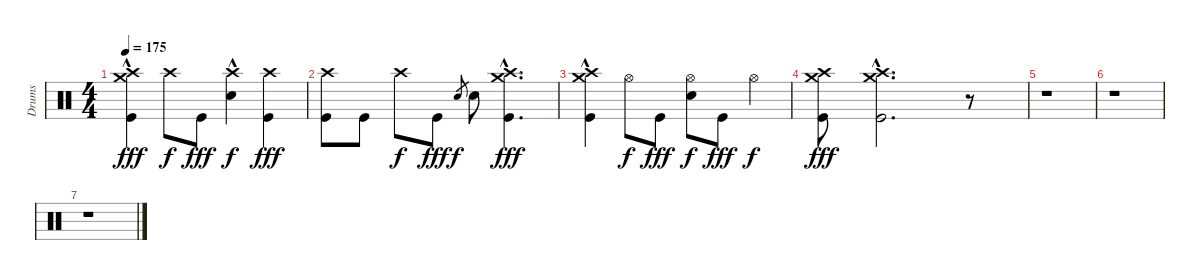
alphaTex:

\track ("Drums" "Drums") {instrument percussion}
\staff {score}
\articulation defaults
\ts (4 4)
\tempo 175
\clef neutral
\ks c
("Crash high (hit)"{hac} "Crash medium (hit)"{hac} "Kick (hit)").4{dy fff} "Crash high (hit)".8{dy f} "Kick (hit)".8{dy fff} ("Crash high (hit)"{hac} "Snare (hit) 2").4{dy f} ("Crash high (hit)" "Kick (hit)").4{dy fff} |
("Crash high (hit)" "Kick (hit)").8 "Kick (hit)".8 "Crash high (hit)".8{dy f} "Kick (hit)".8{dy fff} "Snare (hit) 2".8{gr dy f} "Snare (hit) 2".8 ("Crash high (hit)"{hac} "Crash medium (hit)"{hac} "Kick (hit)"{hac}).4{d dy fff} |
("Crash high (hit)"{hac} "Crash medium (hit)" "Kick (hit)").4 "Hi-Hat (open)".8{dy f} "Kick (hit)".8{dy fff} ("Hi-Hat (open)" "Snare (hit) 2").8{dy f} "Kick (hit)".8{dy fff} "Hi-Hat (open)".4{dy f} |
("Crash high (hit)" "Crash medium (hit)" "Kick (hit)").8{dy fff} ("Crash high (hit)"{hac} "Crash medium (hit)"{hac} "Kick (hit)"{hac}).2{d} r.8 |
r.1 |
r.1 |
r.1
